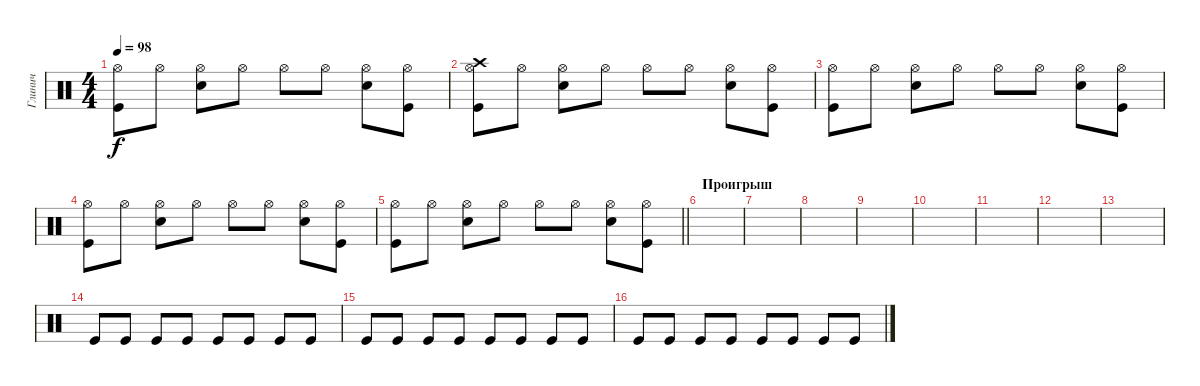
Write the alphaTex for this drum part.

\track ("Глинич" "Глинич") {instrument percussion}
\staff {score}
\articulation defaults
\ts (4 4)
\tempo 98
\clef neutral
\ks c
("Hi-Hat (open)" "Kick (hit)").8{dy f} "Hi-Hat (open)".8 ("Hi-Hat (open)" "Snare (hit) 2").8 "Hi-Hat (open)".8 "Hi-Hat (open)".8 "Hi-Hat (open)".8 ("Hi-Hat (open)" "Snare (hit) 2").8 ("Hi-Hat (open)" "Kick (hit)").8 |
("Hi-Hat (open)" "Kick (hit)" "Crash high (hit)").8 "Hi-Hat (open)".8 ("Hi-Hat (open)" "Snare (hit) 2").8 "Hi-Hat (open)".8 "Hi-Hat (open)".8 "Hi-Hat (open)".8 ("Hi-Hat (open)" "Snare (hit) 2").8 ("Hi-Hat (open)" "Kick (hit)").8 |
("Hi-Hat (open)" "Kick (hit)").8 "Hi-Hat (open)".8 ("Hi-Hat (open)" "Snare (hit) 2").8 "Hi-Hat (open)".8 "Hi-Hat (open)".8 "Hi-Hat (open)".8 ("Hi-Hat (open)" "Snare (hit) 2").8 ("Hi-Hat (open)" "Kick (hit)").8 |
("Hi-Hat (open)" "Kick (hit)").8 "Hi-Hat (open)".8 ("Hi-Hat (open)" "Snare (hit) 2").8 "Hi-Hat (open)".8 "Hi-Hat (open)".8 "Hi-Hat (open)".8 ("Hi-Hat (open)" "Snare (hit) 2").8 ("Hi-Hat (open)" "Kick (hit)").8 |
\barLineRight lightlight
("Hi-Hat (open)" "Kick (hit)").8 "Hi-Hat (open)".8 ("Hi-Hat (open)" "Snare (hit) 2").8 "Hi-Hat (open)".8 "Hi-Hat (open)".8 "Hi-Hat (open)".8 ("Hi-Hat (open)" "Snare (hit) 2").8 ("Hi-Hat (open)" "Kick (hit)").8 |
\section ("" "Проигрыш")
|
|
|
|
|
|
|
|
"Kick (hit)".8 "Kick (hit)".8 "Kick (hit)".8 "Kick (hit)".8 "Kick (hit)".8 "Kick (hit)".8 "Kick (hit)".8 "Kick (hit)".8 |
"Kick (hit)".8 "Kick (hit)".8 "Kick (hit)".8 "Kick (hit)".8 "Kick (hit)".8 "Kick (hit)".8 "Kick (hit)".8 "Kick (hit)".8 |
"Kick (hit)".8 "Kick (hit)".8 "Kick (hit)".8 "Kick (hit)".8 "Kick (hit)".8 "Kick (hit)".8 "Kick (hit)".8 "Kick (hit)".8
